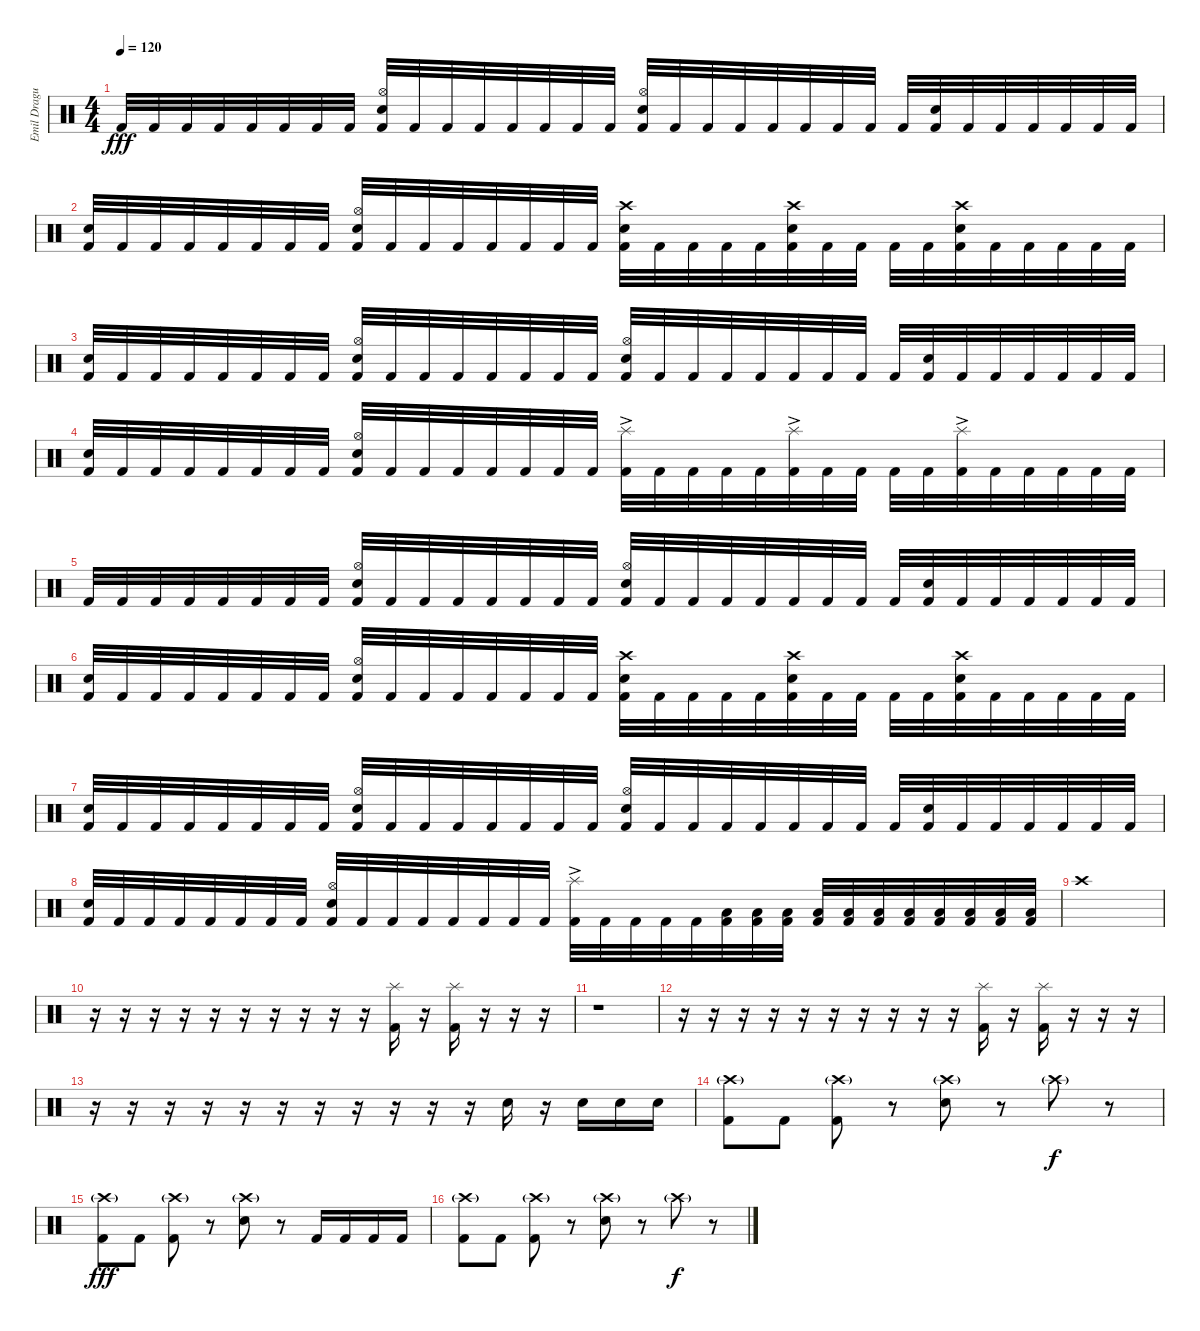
\track ("Emil Dragutinovic" "Emil Dragu") {instrument percussion}
\staff {score}
\articulation defaults
\ts (4 4)
\tempo 120
\clef neutral
\ks c "Kick (hit) 2".32{dy fff} "Kick (hit) 2".32 "Kick (hit) 2".32 "Kick (hit) 2".32 "Kick (hit) 2".32 "Kick (hit) 2".32 "Kick (hit) 2".32 "Kick (hit) 2".32
("Hi-Hat (open)" "Electric Snare (hit)" "Kick (hit) 2").32 "Kick (hit) 2".32 "Kick (hit) 2".32 "Kick (hit) 2".32 "Kick (hit) 2".32 "Kick (hit) 2".32 "Kick (hit) 2".32 "Kick (hit) 2".32 ("Hi-Hat (open)" "Electric Snare (hit)" "Kick (hit) 2").32 "Kick (hit) 2".32 "Kick (hit) 2".32 "Kick (hit) 2".32 "Kick (hit) 2".32 "Kick (hit) 2".32 "Kick (hit) 2".32 "Kick (hit) 2".32 "Kick (hit) 2".32 ("Electric Snare (hit)" "Kick (hit) 2").32 "Kick (hit) 2".32 "Kick (hit) 2".32 "Kick (hit) 2".32 "Kick (hit) 2".32 "Kick (hit) 2".32 "Kick (hit) 2".32 |
("Electric Snare (hit)" "Kick (hit) 2").32 "Kick (hit) 2".32 "Kick (hit) 2".32 "Kick (hit) 2".32 "Kick (hit) 2".32 "Kick (hit) 2".32 "Kick (hit) 2".32 "Kick (hit) 2".32 ("Hi-Hat (open)" "Electric Snare (hit)" "Kick (hit) 2").32 "Kick (hit) 2".32 "Kick (hit) 2".32 "Kick (hit) 2".32 "Kick (hit) 2".32 "Kick (hit) 2".32 "Kick (hit) 2".32 "Kick (hit) 2".32 ("Crash high (hit)" "Electric Snare (hit)" "Kick (hit) 2").32 "Kick (hit) 2".32 "Kick (hit) 2".32 "Kick (hit) 2".32 "Kick (hit) 2".32 ("Crash high (hit)" "Electric Snare (hit)" "Kick (hit) 2").32 "Kick (hit) 2".32 "Kick (hit) 2".32 "Kick (hit) 2".32 "Kick (hit) 2".32 ("Crash high (hit)" "Electric Snare (hit)" "Kick (hit) 2").32 "Kick (hit) 2".32 "Kick (hit) 2".32 "Kick (hit) 2".32 "Kick (hit) 2".32 "Kick (hit) 2".32 |
("Electric Snare (hit)" "Kick (hit) 2").32 "Kick (hit) 2".32 "Kick (hit) 2".32 "Kick (hit) 2".32 "Kick (hit) 2".32 "Kick (hit) 2".32 "Kick (hit) 2".32 "Kick (hit) 2".32 ("Hi-Hat (open)" "Electric Snare (hit)" "Kick (hit) 2").32 "Kick (hit) 2".32 "Kick (hit) 2".32 "Kick (hit) 2".32 "Kick (hit) 2".32 "Kick (hit) 2".32 "Kick (hit) 2".32 "Kick (hit) 2".32 ("Hi-Hat (open)" "Electric Snare (hit)" "Kick (hit) 2").32 "Kick (hit) 2".32 "Kick (hit) 2".32 "Kick (hit) 2".32 "Kick (hit) 2".32 "Kick (hit) 2".32 "Kick (hit) 2".32 "Kick (hit) 2".32 "Kick (hit) 2".32 ("Electric Snare (hit)" "Kick (hit) 2").32 "Kick (hit) 2".32 "Kick (hit) 2".32 "Kick (hit) 2".32 "Kick (hit) 2".32 "Kick (hit) 2".32 "Kick (hit) 2".32 |
("Electric Snare (hit)" "Kick (hit) 2").32 "Kick (hit) 2".32 "Kick (hit) 2".32 "Kick (hit) 2".32 "Kick (hit) 2".32 "Kick (hit) 2".32 "Kick (hit) 2".32 "Kick (hit) 2".32 ("Hi-Hat (open)" "Electric Snare (hit)" "Kick (hit) 2").32 "Kick (hit) 2".32 "Kick (hit) 2".32 "Kick (hit) 2".32 "Kick (hit) 2".32 "Kick (hit) 2".32 "Kick (hit) 2".32 "Kick (hit) 2".32 ("Splash (hit)"{ac} "Kick (hit) 2").32 "Kick (hit) 2".32 "Kick (hit) 2".32 "Kick (hit) 2".32 "Kick (hit) 2".32 ("Splash (hit)"{ac} "Kick (hit) 2").32 "Kick (hit) 2".32 "Kick (hit) 2".32 "Kick (hit) 2".32 "Kick (hit) 2".32 ("Splash (hit)"{ac} "Kick (hit) 2").32 "Kick (hit) 2".32 "Kick (hit) 2".32 "Kick (hit) 2".32 "Kick (hit) 2".32 "Kick (hit) 2".32 |
"Kick (hit) 2".32 "Kick (hit) 2".32 "Kick (hit) 2".32 "Kick (hit) 2".32 "Kick (hit) 2".32 "Kick (hit) 2".32 "Kick (hit) 2".32 "Kick (hit) 2".32 ("Hi-Hat (open)" "Electric Snare (hit)" "Kick (hit) 2").32 "Kick (hit) 2".32 "Kick (hit) 2".32 "Kick (hit) 2".32 "Kick (hit) 2".32 "Kick (hit) 2".32 "Kick (hit) 2".32 "Kick (hit) 2".32 ("Hi-Hat (open)" "Electric Snare (hit)" "Kick (hit) 2").32 "Kick (hit) 2".32 "Kick (hit) 2".32 "Kick (hit) 2".32 "Kick (hit) 2".32 "Kick (hit) 2".32 "Kick (hit) 2".32 "Kick (hit) 2".32 "Kick (hit) 2".32 ("Electric Snare (hit)" "Kick (hit) 2").32 "Kick (hit) 2".32 "Kick (hit) 2".32 "Kick (hit) 2".32 "Kick (hit) 2".32 "Kick (hit) 2".32 "Kick (hit) 2".32 |
("Electric Snare (hit)" "Kick (hit) 2").32 "Kick (hit) 2".32 "Kick (hit) 2".32 "Kick (hit) 2".32 "Kick (hit) 2".32 "Kick (hit) 2".32 "Kick (hit) 2".32 "Kick (hit) 2".32 ("Hi-Hat (open)" "Electric Snare (hit)" "Kick (hit) 2").32 "Kick (hit) 2".32 "Kick (hit) 2".32 "Kick (hit) 2".32 "Kick (hit) 2".32 "Kick (hit) 2".32 "Kick (hit) 2".32 "Kick (hit) 2".32 ("Crash high (hit)" "Electric Snare (hit)" "Kick (hit) 2").32 "Kick (hit) 2".32 "Kick (hit) 2".32 "Kick (hit) 2".32 "Kick (hit) 2".32 ("Crash high (hit)" "Electric Snare (hit)" "Kick (hit) 2").32 "Kick (hit) 2".32 "Kick (hit) 2".32 "Kick (hit) 2".32 "Kick (hit) 2".32 ("Crash high (hit)" "Electric Snare (hit)" "Kick (hit) 2").32 "Kick (hit) 2".32 "Kick (hit) 2".32 "Kick (hit) 2".32 "Kick (hit) 2".32 "Kick (hit) 2".32 |
("Electric Snare (hit)" "Kick (hit) 2").32 "Kick (hit) 2".32 "Kick (hit) 2".32 "Kick (hit) 2".32 "Kick (hit) 2".32 "Kick (hit) 2".32 "Kick (hit) 2".32 "Kick (hit) 2".32 ("Hi-Hat (open)" "Electric Snare (hit)" "Kick (hit) 2").32 "Kick (hit) 2".32 "Kick (hit) 2".32 "Kick (hit) 2".32 "Kick (hit) 2".32 "Kick (hit) 2".32 "Kick (hit) 2".32 "Kick (hit) 2".32 ("Hi-Hat (open)" "Electric Snare (hit)" "Kick (hit) 2").32 "Kick (hit) 2".32 "Kick (hit) 2".32 "Kick (hit) 2".32 "Kick (hit) 2".32 "Kick (hit) 2".32 "Kick (hit) 2".32 "Kick (hit) 2".32 "Kick (hit) 2".32 ("Electric Snare (hit)" "Kick (hit) 2").32 "Kick (hit) 2".32 "Kick (hit) 2".32 "Kick (hit) 2".32 "Kick (hit) 2".32 "Kick (hit) 2".32 "Kick (hit) 2".32 |
("Electric Snare (hit)" "Kick (hit) 2").32 "Kick (hit) 2".32 "Kick (hit) 2".32 "Kick (hit) 2".32 "Kick (hit) 2".32 "Kick (hit) 2".32 "Kick (hit) 2".32 "Kick (hit) 2".32 ("Hi-Hat (open)" "Electric Snare (hit)" "Kick (hit) 2").32 "Kick (hit) 2".32 "Kick (hit) 2".32 "Kick (hit) 2".32 "Kick (hit) 2".32 "Kick (hit) 2".32 "Kick (hit) 2".32 "Kick (hit) 2".32 ("Splash (hit)"{ac} "Kick (hit) 2").32 "Kick (hit) 2".32 "Kick (hit) 2".32 "Kick (hit) 2".32 "Kick (hit) 2".32 ("Low Tom (hit)" "Kick (hit) 2").32 ("Low Tom (hit)" "Kick (hit) 2").32 ("Low Tom (hit)" "Kick (hit) 2").32 ("Low Tom (hit)" "Kick (hit) 2").32 ("Low Floor Tom (hit)" "Kick (hit) 2").32 ("Low Floor Tom (hit)" "Kick (hit) 2").32 ("Low Floor Tom (hit)" "Kick (hit) 2").32 ("Low Floor Tom (hit)" "Kick (hit) 2").32 ("Low Floor Tom (hit)" "Kick (hit) 2").32 ("Low Floor Tom (hit)" "Kick (hit) 2").32 ("Low Floor Tom (hit)" "Kick (hit) 2").32 |
"Crash high (hit)".1 |
r.16 r.16 r.16 r.16 r.16 r.16 r.16 r.16 r.16 r.16 ("Splash (hit)" "Kick (hit) 2").16 r.16 ("Splash (hit)" "Kick (hit) 2").16 r.16 r.16 r.16 |
r.1 |
r.16 r.16 r.16 r.16 r.16 r.16 r.16 r.16 r.16 r.16 ("Splash (hit)" "Kick (hit) 2").16 r.16 ("Splash (hit)" "Kick (hit) 2").16 r.16 r.16 r.16 |
r.16 r.16 r.16 r.16 r.16 r.16 r.16 r.16 r.16 r.16 r.16 "Electric Snare (hit)".16 r.16 "Electric Snare (hit)".16 "Electric Snare (hit)".16 "Electric Snare (hit)".16 |
("Crash high (hit)"{g} "Kick (hit) 2").8 "Kick (hit) 2".8 ("Crash high (hit)"{g} "Kick (hit) 2").8 r.8 ("Crash high (hit)"{g} "Electric Snare (hit)").8 r.8 "Crash high (hit)"{g}.8{dy f} r.8 |
("Crash high (hit)"{g} "Kick (hit) 2").8{dy fff} "Kick (hit) 2".8 ("Crash high (hit)"{g} "Kick (hit) 2").8 r.8 ("Crash high (hit)"{g} "Electric Snare (hit)").8 r.8 "Kick (hit) 2".16 "Kick (hit) 2".16 "Kick (hit) 2".16 "Kick (hit) 2".16 |
("Crash high (hit)"{g} "Kick (hit) 2").8 "Kick (hit) 2".8 ("Crash high (hit)"{g} "Kick (hit) 2").8 r.8 ("Crash high (hit)"{g} "Electric Snare (hit)").8 r.8 "Crash high (hit)"{g}.8{dy f} r.8
